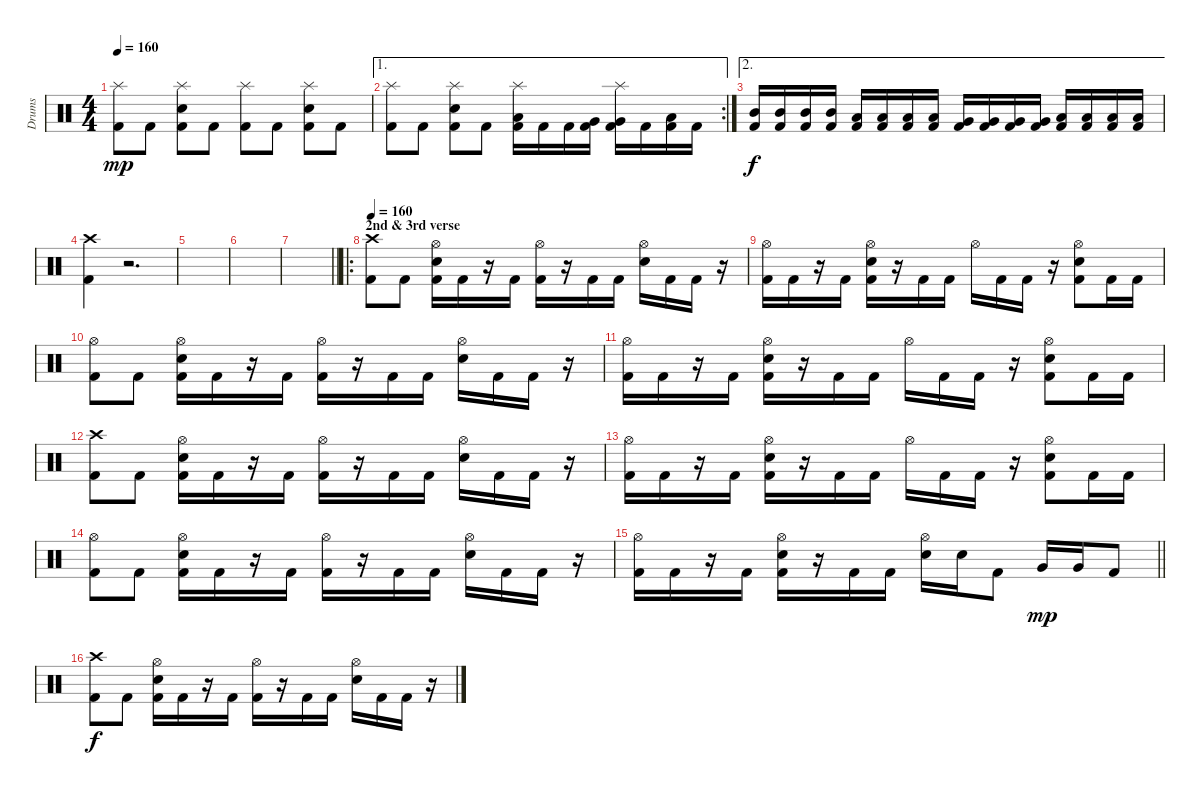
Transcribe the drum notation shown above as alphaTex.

\track ("Drums" "Drums") {instrument percussion}
\staff {score}
\articulation defaults
\ts (4 4)
\tempo 160
\clef neutral
\ks c
("Splash (hit)" "Kick (hit) 2").8{dy mp} "Kick (hit) 2".8 ("Electric Snare (hit)" "Splash (hit)" "Kick (hit) 2").8 "Kick (hit) 2".8 ("Splash (hit)" "Kick (hit) 2").8 "Kick (hit) 2".8 ("Electric Snare (hit)" "Splash (hit)" "Kick (hit) 2").8 "Kick (hit) 2".8 |
\ae 1
\rc 2
("Splash (hit)" "Kick (hit) 2").8 "Kick (hit) 2".8 ("Electric Snare (hit)" "Splash (hit)" "Kick (hit) 2").8 "Kick (hit) 2".8 ("Low Tom (hit)" "Splash (hit)" "Kick (hit) 2").16 "Kick (hit) 2".16 "Kick (hit) 2".16 ("Very Low Tom (hit)" "Kick (hit) 2").16 ("Very Low Tom (hit)" "Splash (hit)" "Kick (hit) 2").16 "Kick (hit) 2".16 ("Low Floor Tom (hit)" "Kick (hit) 2").16 "Kick (hit) 2".16 |
\ae 2
("Mid Tom (hit)" "Kick (hit) 2").16{dy f} ("Mid Tom (hit)" "Kick (hit) 2").16 ("Mid Tom (hit)" "Kick (hit) 2").16 ("Mid Tom (hit)" "Kick (hit) 2").16 ("Low Tom (hit)" "Kick (hit) 2").16 ("Low Tom (hit)" "Kick (hit) 2").16 ("Low Tom (hit)" "Kick (hit) 2").16 ("Low Tom (hit)" "Kick (hit) 2").16 ("Very Low Tom (hit)" "Kick (hit) 2").16 ("Very Low Tom (hit)" "Kick (hit) 2").16 ("Very Low Tom (hit)" "Kick (hit) 2").16 ("Very Low Tom (hit)" "Kick (hit) 2").16 ("Low Floor Tom (hit)" "Kick (hit) 2").16 ("Low Floor Tom (hit)" "Kick (hit) 2").16 ("Low Floor Tom (hit)" "Kick (hit) 2").16 ("Low Floor Tom (hit)" "Kick (hit) 2").16 |
("Crash high (hit)" "Kick (hit) 2").4 r.2{d} |
|
|
\barLineRight lightlight
|
\ro
\section ("" "2nd & 3rd verse")
\tempo 160
("Crash high (hit)" "Kick (hit) 2").8 "Kick (hit) 2".8 ("Electric Snare (hit)" "Hi-Hat (open)" "Kick (hit) 2").16 "Kick (hit) 2".16 r.16 "Kick (hit) 2".16 ("Hi-Hat (open)" "Kick (hit) 2").16 r.16 "Kick (hit) 2".16 "Kick (hit) 2".16 ("Electric Snare (hit)" "Hi-Hat (open)").16 "Kick (hit) 2".16 "Kick (hit) 2".16 r.16 |
("Hi-Hat (open)" "Kick (hit) 2").16 "Kick (hit) 2".16 r.16 "Kick (hit) 2".16 ("Electric Snare (hit)" "Hi-Hat (open)" "Kick (hit) 2").16 r.16 "Kick (hit) 2".16 "Kick (hit) 2".16 "Hi-Hat (open)".16 "Kick (hit) 2".16 "Kick (hit) 2".16 r.16 ("Electric Snare (hit)" "Hi-Hat (open)" "Kick (hit) 2").8 "Kick (hit) 2".16 "Kick (hit) 2".16 |
("Hi-Hat (open)" "Kick (hit) 2").8 "Kick (hit) 2".8 ("Electric Snare (hit)" "Hi-Hat (open)" "Kick (hit) 2").16 "Kick (hit) 2".16 r.16 "Kick (hit) 2".16 ("Hi-Hat (open)" "Kick (hit) 2").16 r.16 "Kick (hit) 2".16 "Kick (hit) 2".16 ("Electric Snare (hit)" "Hi-Hat (open)").16 "Kick (hit) 2".16 "Kick (hit) 2".16 r.16 |
("Hi-Hat (open)" "Kick (hit) 2").16 "Kick (hit) 2".16 r.16 "Kick (hit) 2".16 ("Electric Snare (hit)" "Hi-Hat (open)" "Kick (hit) 2").16 r.16 "Kick (hit) 2".16 "Kick (hit) 2".16 "Hi-Hat (open)".16 "Kick (hit) 2".16 "Kick (hit) 2".16 r.16 ("Electric Snare (hit)" "Hi-Hat (open)" "Kick (hit) 2").8 "Kick (hit) 2".16 "Kick (hit) 2".16 |
("Crash high (hit)" "Kick (hit) 2").8 "Kick (hit) 2".8 ("Electric Snare (hit)" "Hi-Hat (open)" "Kick (hit) 2").16 "Kick (hit) 2".16 r.16 "Kick (hit) 2".16 ("Hi-Hat (open)" "Kick (hit) 2").16 r.16 "Kick (hit) 2".16 "Kick (hit) 2".16 ("Electric Snare (hit)" "Hi-Hat (open)").16 "Kick (hit) 2".16 "Kick (hit) 2".16 r.16 |
("Hi-Hat (open)" "Kick (hit) 2").16 "Kick (hit) 2".16 r.16 "Kick (hit) 2".16 ("Electric Snare (hit)" "Hi-Hat (open)" "Kick (hit) 2").16 r.16 "Kick (hit) 2".16 "Kick (hit) 2".16 "Hi-Hat (open)".16 "Kick (hit) 2".16 "Kick (hit) 2".16 r.16 ("Electric Snare (hit)" "Hi-Hat (open)" "Kick (hit) 2").8 "Kick (hit) 2".16 "Kick (hit) 2".16 |
("Hi-Hat (open)" "Kick (hit) 2").8 "Kick (hit) 2".8 ("Electric Snare (hit)" "Hi-Hat (open)" "Kick (hit) 2").16 "Kick (hit) 2".16 r.16 "Kick (hit) 2".16 ("Hi-Hat (open)" "Kick (hit) 2").16 r.16 "Kick (hit) 2".16 "Kick (hit) 2".16 ("Electric Snare (hit)" "Hi-Hat (open)").16 "Kick (hit) 2".16 "Kick (hit) 2".16 r.16 |
\barLineRight lightlight
("Hi-Hat (open)" "Kick (hit) 2").16 "Kick (hit) 2".16 r.16 "Kick (hit) 2".16 ("Electric Snare (hit)" "Hi-Hat (open)" "Kick (hit) 2").16 r.16 "Kick (hit) 2".16 "Kick (hit) 2".16 ("Hi-Hat (open)" "Electric Snare (hit)").16 "Electric Snare (hit)".16 "Kick (hit) 2".8 "Very Low Tom (hit)".16{dy mp} "Very Low Tom (hit)".16 "Kick (hit) 2".8 |
\section ("" "")
("Crash high (hit)" "Kick (hit) 2").8{dy f} "Kick (hit) 2".8 ("Electric Snare (hit)" "Hi-Hat (open)" "Kick (hit) 2").16 "Kick (hit) 2".16 r.16 "Kick (hit) 2".16 ("Hi-Hat (open)" "Kick (hit) 2").16 r.16 "Kick (hit) 2".16 "Kick (hit) 2".16 ("Electric Snare (hit)" "Hi-Hat (open)").16 "Kick (hit) 2".16 "Kick (hit) 2".16 r.16
